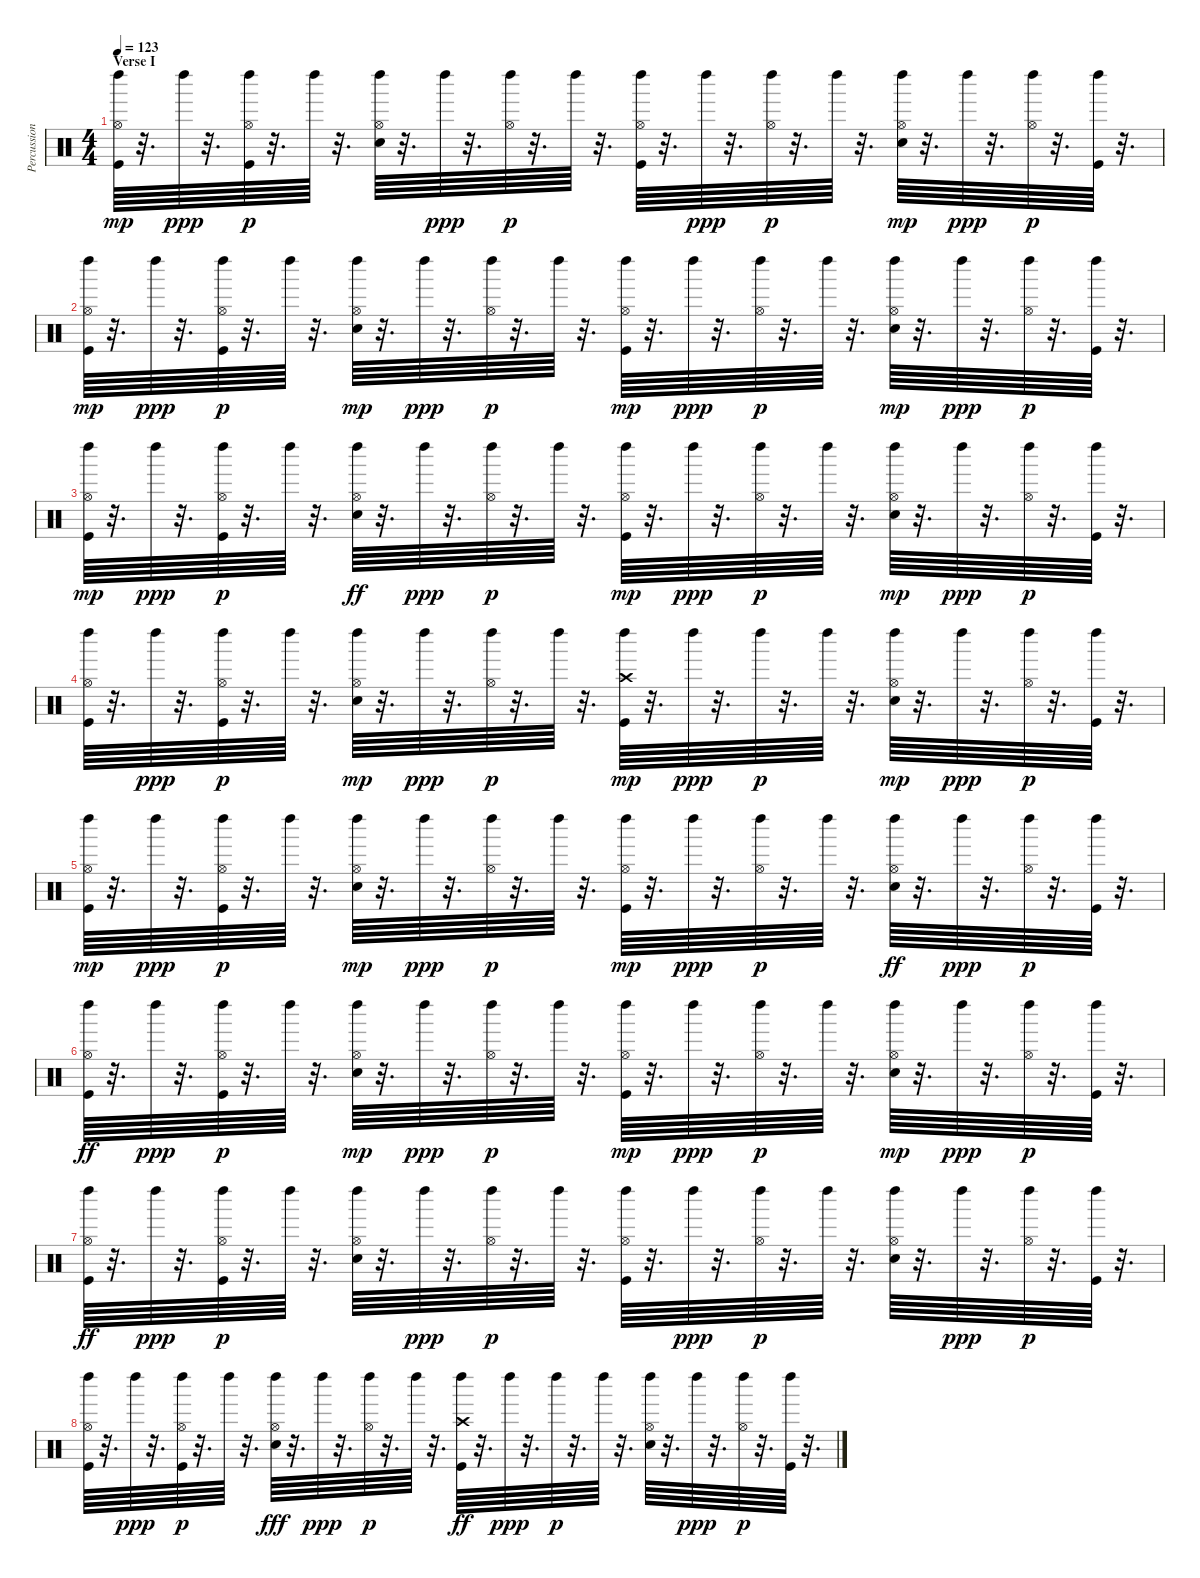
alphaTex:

\track ("Percussion" "Percussion") {instrument percussion}
\staff {score}
\articulation defaults
\ts (4 4)
\section ("" "Verse I")
\tempo 123
\clef neutral
\ks c
("Kick (hit)" "Hi-Hat (open)" "Left Maraca (hit)").64{dy mp} r.32{d} "Left Maraca (hit)".64{dy ppp} r.32{d} ("Kick (hit)" "Hi-Hat (open)" "Left Maraca (hit)").64{dy p} r.32{d} "Left Maraca (hit)".64 r.32{d} ("Left Maraca (hit)" "Electric Snare (hit)" "Hi-Hat (open)").64 r.32{d} "Left Maraca (hit)".64{dy ppp} r.32{d} ("Hi-Hat (open)" "Left Maraca (hit)").64{dy p} r.32{d} "Left Maraca (hit)".64 r.32{d} ("Left Maraca (hit)" "Kick (hit)" "Hi-Hat (open)").64 r.32{d} "Left Maraca (hit)".64{dy ppp} r.32{d} ("Hi-Hat (open)" "Left Maraca (hit)").64{dy p} r.32{d} "Left Maraca (hit)".64 r.32{d} ("Electric Snare (hit)" "Hi-Hat (open)" "Left Maraca (hit)").64{dy mp} r.32{d} "Left Maraca (hit)".64{dy ppp} r.32{d} ("Hi-Hat (open)" "Left Maraca (hit)").64{dy p} r.32{d} ("Kick (hit)" "Left Maraca (hit)").64 r.32{d} |
("Kick (hit)" "Hi-Hat (open)" "Left Maraca (hit)").64{dy mp} r.32{d} "Left Maraca (hit)".64{dy ppp} r.32{d} ("Kick (hit)" "Hi-Hat (open)" "Left Maraca (hit)").64{dy p} r.32{d} "Left Maraca (hit)".64 r.32{d} ("Electric Snare (hit)" "Hi-Hat (open)" "Left Maraca (hit)").64{dy mp} r.32{d} "Left Maraca (hit)".64{dy ppp} r.32{d} ("Hi-Hat (open)" "Left Maraca (hit)").64{dy p} r.32{d} "Left Maraca (hit)".64 r.32{d} ("Kick (hit)" "Hi-Hat (open)" "Left Maraca (hit)").64{dy mp} r.32{d} "Left Maraca (hit)".64{dy ppp} r.32{d} ("Hi-Hat (open)" "Left Maraca (hit)").64{dy p} r.32{d} "Left Maraca (hit)".64 r.32{d} ("Electric Snare (hit)" "Hi-Hat (open)" "Left Maraca (hit)").64{dy mp} r.32{d} "Left Maraca (hit)".64{dy ppp} r.32{d} ("Hi-Hat (open)" "Left Maraca (hit)").64{dy p} r.32{d} ("Kick (hit)" "Left Maraca (hit)").64 r.32{d} |
("Kick (hit)" "Hi-Hat (open)" "Left Maraca (hit)").64{dy mp} r.32{d} "Left Maraca (hit)".64{dy ppp} r.32{d} ("Kick (hit)" "Hi-Hat (open)" "Left Maraca (hit)").64{dy p} r.32{d} "Left Maraca (hit)".64 r.32{d} ("Hi-Hat (open)" "Left Maraca (hit)" "Electric Snare (hit)").64{dy ff} r.32{d} "Left Maraca (hit)".64{dy ppp} r.32{d} ("Hi-Hat (open)" "Left Maraca (hit)").64{dy p} r.32{d} "Left Maraca (hit)".64 r.32{d} ("Kick (hit)" "Hi-Hat (open)" "Left Maraca (hit)").64{dy mp} r.32{d} "Left Maraca (hit)".64{dy ppp} r.32{d} ("Hi-Hat (open)" "Left Maraca (hit)").64{dy p} r.32{d} "Left Maraca (hit)".64 r.32{d} ("Electric Snare (hit)" "Hi-Hat (open)" "Left Maraca (hit)").64{dy mp} r.32{d} "Left Maraca (hit)".64{dy ppp} r.32{d} ("Hi-Hat (open)" "Left Maraca (hit)").64{dy p} r.32{d} ("Kick (hit)" "Left Maraca (hit)").64 r.32{d} |
("Left Maraca (hit)" "Kick (hit)" "Hi-Hat (open)").64 r.32{d} "Left Maraca (hit)".64{dy ppp} r.32{d} ("Kick (hit)" "Hi-Hat (open)" "Left Maraca (hit)").64{dy p} r.32{d} "Left Maraca (hit)".64 r.32{d} ("Electric Snare (hit)" "Hi-Hat (open)" "Left Maraca (hit)").64{dy mp} r.32{d} "Left Maraca (hit)".64{dy ppp} r.32{d} ("Hi-Hat (open)" "Left Maraca (hit)").64{dy p} r.32{d} "Left Maraca (hit)".64 r.32{d} ("Kick (hit)" "Crash high (hit)" "Left Maraca (hit)").64{dy mp} r.32{d} "Left Maraca (hit)".64{dy ppp} r.32{d} "Left Maraca (hit)".64{dy p} r.32{d} "Left Maraca (hit)".64 r.32{d} ("Electric Snare (hit)" "Hi-Hat (open)" "Left Maraca (hit)").64{dy mp} r.32{d} "Left Maraca (hit)".64{dy ppp} r.32{d} ("Hi-Hat (open)" "Left Maraca (hit)").64{dy p} r.32{d} ("Kick (hit)" "Left Maraca (hit)").64 r.32{d} |
("Kick (hit)" "Hi-Hat (open)" "Left Maraca (hit)").64{dy mp} r.32{d} "Left Maraca (hit)".64{dy ppp} r.32{d} ("Kick (hit)" "Hi-Hat (open)" "Left Maraca (hit)").64{dy p} r.32{d} "Left Maraca (hit)".64 r.32{d} ("Electric Snare (hit)" "Hi-Hat (open)" "Left Maraca (hit)").64{dy mp} r.32{d} "Left Maraca (hit)".64{dy ppp} r.32{d} ("Hi-Hat (open)" "Left Maraca (hit)").64{dy p} r.32{d} "Left Maraca (hit)".64 r.32{d} ("Kick (hit)" "Hi-Hat (open)" "Left Maraca (hit)").64{dy mp} r.32{d} "Left Maraca (hit)".64{dy ppp} r.32{d} ("Hi-Hat (open)" "Left Maraca (hit)").64{dy p} r.32{d} "Left Maraca (hit)".64 r.32{d} ("Hi-Hat (open)" "Left Maraca (hit)" "Electric Snare (hit)").64{dy ff} r.32{d} "Left Maraca (hit)".64{dy ppp} r.32{d} ("Hi-Hat (open)" "Left Maraca (hit)").64{dy p} r.32{d} ("Kick (hit)" "Left Maraca (hit)").64 r.32{d} |
("Hi-Hat (open)" "Left Maraca (hit)" "Kick (hit)").64{dy ff} r.32{d} "Left Maraca (hit)".64{dy ppp} r.32{d} ("Kick (hit)" "Hi-Hat (open)" "Left Maraca (hit)").64{dy p} r.32{d} "Left Maraca (hit)".64 r.32{d} ("Electric Snare (hit)" "Hi-Hat (open)" "Left Maraca (hit)").64{dy mp} r.32{d} "Left Maraca (hit)".64{dy ppp} r.32{d} ("Hi-Hat (open)" "Left Maraca (hit)").64{dy p} r.32{d} "Left Maraca (hit)".64 r.32{d} ("Kick (hit)" "Hi-Hat (open)" "Left Maraca (hit)").64{dy mp} r.32{d} "Left Maraca (hit)".64{dy ppp} r.32{d} ("Hi-Hat (open)" "Left Maraca (hit)").64{dy p} r.32{d} "Left Maraca (hit)".64 r.32{d} ("Electric Snare (hit)" "Hi-Hat (open)" "Left Maraca (hit)").64{dy mp} r.32{d} "Left Maraca (hit)".64{dy ppp} r.32{d} ("Hi-Hat (open)" "Left Maraca (hit)").64{dy p} r.32{d} ("Kick (hit)" "Left Maraca (hit)").64 r.32{d} |
("Hi-Hat (open)" "Left Maraca (hit)" "Kick (hit)").64{dy ff} r.32{d} "Left Maraca (hit)".64{dy ppp} r.32{d} ("Kick (hit)" "Hi-Hat (open)" "Left Maraca (hit)").64{dy p} r.32{d} "Left Maraca (hit)".64 r.32{d} ("Left Maraca (hit)" "Electric Snare (hit)" "Hi-Hat (open)").64 r.32{d} "Left Maraca (hit)".64{dy ppp} r.32{d} ("Hi-Hat (open)" "Left Maraca (hit)").64{dy p} r.32{d} "Left Maraca (hit)".64 r.32{d} ("Left Maraca (hit)" "Kick (hit)" "Hi-Hat (open)").64 r.32{d} "Left Maraca (hit)".64{dy ppp} r.32{d} ("Hi-Hat (open)" "Left Maraca (hit)").64{dy p} r.32{d} "Left Maraca (hit)".64 r.32{d} ("Left Maraca (hit)" "Electric Snare (hit)" "Hi-Hat (open)").64 r.32{d} "Left Maraca (hit)".64{dy ppp} r.32{d} ("Hi-Hat (open)" "Left Maraca (hit)").64{dy p} r.32{d} ("Kick (hit)" "Left Maraca (hit)").64 r.32{d} |
("Left Maraca (hit)" "Kick (hit)" "Hi-Hat (open)").64 r.32{d} "Left Maraca (hit)".64{dy ppp} r.32{d} ("Kick (hit)" "Hi-Hat (open)" "Left Maraca (hit)").64{dy p} r.32{d} "Left Maraca (hit)".64 r.32{d} ("Hi-Hat (open)" "Left Maraca (hit)" "Electric Snare (hit)").64{dy fff} r.32{d} "Left Maraca (hit)".64{dy ppp} r.32{d} ("Hi-Hat (open)" "Left Maraca (hit)").64{dy p} r.32{d} "Left Maraca (hit)".64 r.32{d} ("Crash high (hit)" "Left Maraca (hit)" "Kick (hit)").64{dy ff} r.32{d} "Left Maraca (hit)".64{dy ppp} r.32{d} "Left Maraca (hit)".64{dy p} r.32{d} "Left Maraca (hit)".64 r.32{d} ("Left Maraca (hit)" "Electric Snare (hit)" "Hi-Hat (open)").64 r.32{d} "Left Maraca (hit)".64{dy ppp} r.32{d} ("Hi-Hat (open)" "Left Maraca (hit)").64{dy p} r.32{d} ("Kick (hit)" "Left Maraca (hit)").64 r.32{d}
